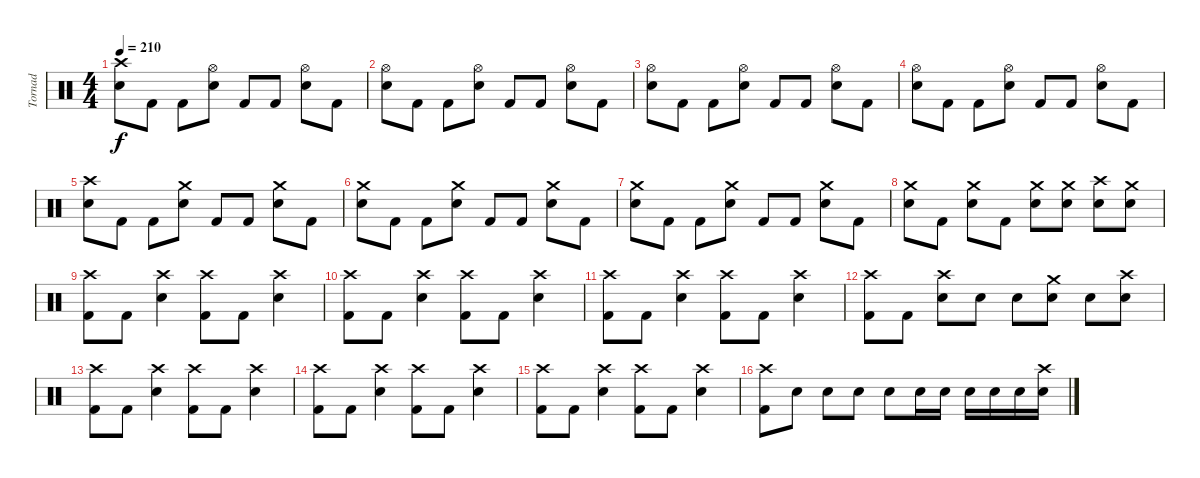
\track ("Tornad" "Tornad") {instrument percussion}
\staff {score}
\articulation defaults
\ts (4 4)
\tempo 210
\clef neutral
\ks c
("Crash high (hit)" "Electric Snare (hit)").8{dy f} "Kick (hit) 2".8 "Kick (hit) 2".8 ("Hi-Hat (open)" "Electric Snare (hit)").8 "Kick (hit) 2".8 "Kick (hit) 2".8 ("Hi-Hat (open)" "Electric Snare (hit)").8 "Kick (hit) 2".8 |
("Hi-Hat (open)" "Electric Snare (hit)").8 "Kick (hit) 2".8 "Kick (hit) 2".8 ("Hi-Hat (open)" "Electric Snare (hit)").8 "Kick (hit) 2".8 "Kick (hit) 2".8 ("Hi-Hat (open)" "Electric Snare (hit)").8 "Kick (hit) 2".8 |
("Hi-Hat (open)" "Electric Snare (hit)").8 "Kick (hit) 2".8 "Kick (hit) 2".8 ("Hi-Hat (open)" "Electric Snare (hit)").8 "Kick (hit) 2".8 "Kick (hit) 2".8 ("Hi-Hat (open)" "Electric Snare (hit)").8 "Kick (hit) 2".8 |
("Hi-Hat (open)" "Electric Snare (hit)").8 "Kick (hit) 2".8 "Kick (hit) 2".8 ("Hi-Hat (open)" "Electric Snare (hit)").8 "Kick (hit) 2".8 "Kick (hit) 2".8 ("Hi-Hat (open)" "Electric Snare (hit)").8 "Kick (hit) 2".8 |
("Crash high (hit)" "Electric Snare (hit)").8 "Kick (hit) 2".8 "Kick (hit) 2".8 ("Crash medium (hit)" "Electric Snare (hit)").8 "Kick (hit) 2".8 "Kick (hit) 2".8 ("Crash medium (hit)" "Electric Snare (hit)").8 "Kick (hit) 2".8 |
("Crash medium (hit)" "Electric Snare (hit)").8 "Kick (hit) 2".8 "Kick (hit) 2".8 ("Crash medium (hit)" "Electric Snare (hit)").8 "Kick (hit) 2".8 "Kick (hit) 2".8 ("Crash medium (hit)" "Electric Snare (hit)").8 "Kick (hit) 2".8 |
("Crash medium (hit)" "Electric Snare (hit)").8 "Kick (hit) 2".8 "Kick (hit) 2".8 ("Crash medium (hit)" "Electric Snare (hit)").8 "Kick (hit) 2".8 "Kick (hit) 2".8 ("Crash medium (hit)" "Electric Snare (hit)").8 "Kick (hit) 2".8 |
("Crash medium (hit)" "Electric Snare (hit)").8 "Kick (hit) 2".8 ("Crash medium (hit)" "Electric Snare (hit)").8 "Kick (hit) 2".8 ("Crash medium (hit)" "Electric Snare (hit)").8 ("Crash medium (hit)" "Electric Snare (hit)").8 ("Crash high (hit)" "Electric Snare (hit)").8 ("Crash medium (hit)" "Electric Snare (hit)").8 |
("Crash high (hit)" "Kick (hit) 2").8 "Kick (hit) 2".8 ("Crash high (hit)" "Electric Snare (hit)").4 ("Crash high (hit)" "Kick (hit) 2").8 "Kick (hit) 2".8 ("Crash high (hit)" "Electric Snare (hit)").4 |
("Crash high (hit)" "Kick (hit) 2").8 "Kick (hit) 2".8 ("Crash high (hit)" "Electric Snare (hit)").4 ("Crash high (hit)" "Kick (hit) 2").8 "Kick (hit) 2".8 ("Crash high (hit)" "Electric Snare (hit)").4 |
("Crash high (hit)" "Kick (hit) 2").8 "Kick (hit) 2".8 ("Crash high (hit)" "Electric Snare (hit)").4 ("Crash high (hit)" "Kick (hit) 2").8 "Kick (hit) 2".8 ("Crash high (hit)" "Electric Snare (hit)").4 |
("Crash high (hit)" "Kick (hit) 2").8 "Kick (hit) 2".8 ("Crash high (hit)" "Electric Snare (hit)").8 "Electric Snare (hit)".8 "Electric Snare (hit)".8 ("Crash medium (hit)" "Electric Snare (hit)").8 "Electric Snare (hit)".8 ("Crash high (hit)" "Electric Snare (hit)").8 |
("Crash high (hit)" "Kick (hit) 2").8 "Kick (hit) 2".8 ("Crash high (hit)" "Electric Snare (hit)").4 ("Crash high (hit)" "Kick (hit) 2").8 "Kick (hit) 2".8 ("Crash high (hit)" "Electric Snare (hit)").4 |
("Crash high (hit)" "Kick (hit) 2").8 "Kick (hit) 2".8 ("Crash high (hit)" "Electric Snare (hit)").4 ("Crash high (hit)" "Kick (hit) 2").8 "Kick (hit) 2".8 ("Crash high (hit)" "Electric Snare (hit)").4 |
("Crash high (hit)" "Kick (hit) 2").8 "Kick (hit) 2".8 ("Crash high (hit)" "Electric Snare (hit)").4 ("Crash high (hit)" "Kick (hit) 2").8 "Kick (hit) 2".8 ("Crash high (hit)" "Electric Snare (hit)").4 |
("Crash high (hit)" "Kick (hit) 2").8 "Electric Snare (hit)".8 "Electric Snare (hit)".8 "Electric Snare (hit)".8 "Electric Snare (hit)".8 "Electric Snare (hit)".16 "Electric Snare (hit)".16 "Electric Snare (hit)".16 "Electric Snare (hit)".16 "Electric Snare (hit)".16 ("Crash high (hit)" "Electric Snare (hit)").16
